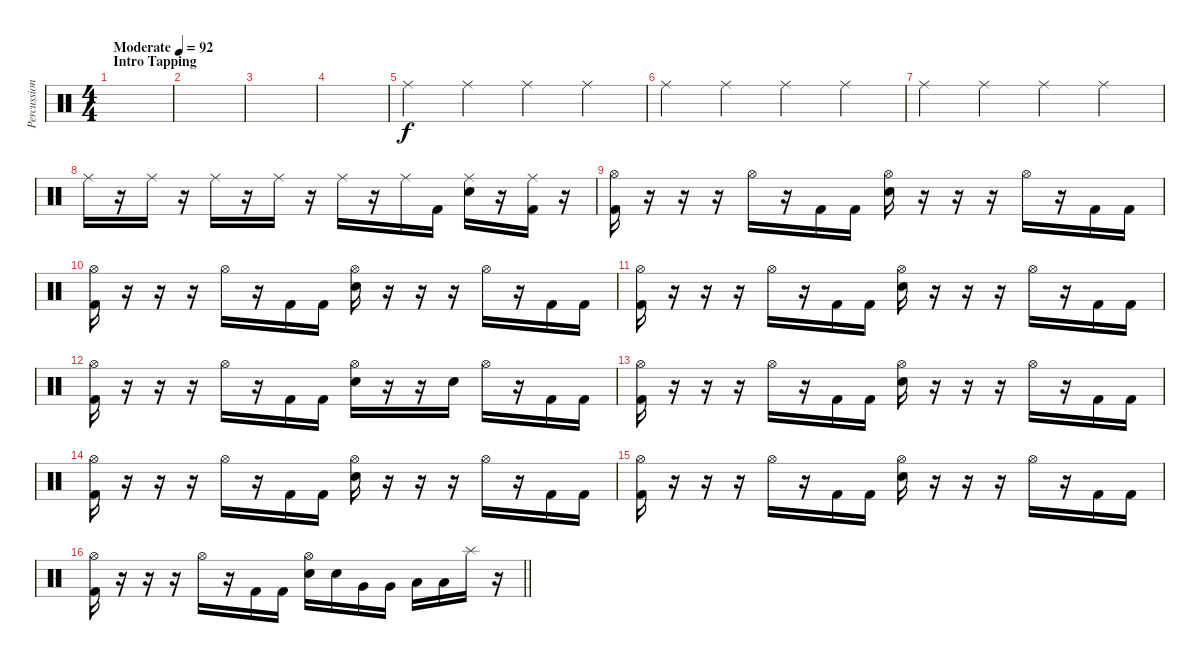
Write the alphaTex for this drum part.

\track ("Percussions" "Percussion") {instrument percussion}
\staff {score}
\articulation defaults
\ts (4 4)
\section ("" "Intro Tapping")
\tempo (92 "Moderate")
\clef neutral
\ks c
|
|
|
|
"Ride (middle)".4 "Ride (middle)".4 "Ride (middle)".4 "Ride (middle)".4 |
"Ride (middle)".4 "Ride (middle)".4 "Ride (middle)".4 "Ride (middle)".4 |
"Ride (middle)".4 "Ride (middle)".4 "Ride (middle)".4 "Ride (middle)".4 |
"Ride (middle)".16 r.16 "Ride (middle)".16 r.16 "Ride (middle)".16 r.16 "Ride (middle)".16 r.16 "Ride (middle)".16 r.16 "Ride (middle)".16 "Kick (hit) 2".16 ("Ride (middle)" "Electric Snare (hit)").16 r.16 ("Ride (middle)" "Kick (hit) 2").16 r.16 |
("Kick (hit) 2" "Hi-Hat (open)").16 r.16 r.16 r.16 "Hi-Hat (open)".16 r.16 "Kick (hit) 2".16 "Kick (hit) 2".16 ("Electric Snare (hit)" "Hi-Hat (open)").16 r.16 r.16 r.16 "Hi-Hat (open)".16 r.16 "Kick (hit) 2".16 "Kick (hit) 2".16 |
("Kick (hit) 2" "Hi-Hat (open)").16 r.16 r.16 r.16 "Hi-Hat (open)".16 r.16 "Kick (hit) 2".16 "Kick (hit) 2".16 ("Electric Snare (hit)" "Hi-Hat (open)").16 r.16 r.16 r.16 "Hi-Hat (open)".16 r.16 "Kick (hit) 2".16 "Kick (hit) 2".16 |
("Kick (hit) 2" "Hi-Hat (open)").16 r.16 r.16 r.16 "Hi-Hat (open)".16 r.16 "Kick (hit) 2".16 "Kick (hit) 2".16 ("Electric Snare (hit)" "Hi-Hat (open)").16 r.16 r.16 r.16 "Hi-Hat (open)".16 r.16 "Kick (hit) 2".16 "Kick (hit) 2".16 |
("Kick (hit) 2" "Hi-Hat (open)").16 r.16 r.16 r.16 "Hi-Hat (open)".16 r.16 "Kick (hit) 2".16 "Kick (hit) 2".16 ("Electric Snare (hit)" "Hi-Hat (open)").16 r.16 r.16 "Electric Snare (hit)".16 "Hi-Hat (open)".16 r.16 "Kick (hit) 2".16 "Kick (hit) 2".16 |
("Kick (hit) 2" "Hi-Hat (open)").16 r.16 r.16 r.16 "Hi-Hat (open)".16 r.16 "Kick (hit) 2".16 "Kick (hit) 2".16 ("Electric Snare (hit)" "Hi-Hat (open)").16 r.16 r.16 r.16 "Hi-Hat (open)".16 r.16 "Kick (hit) 2".16 "Kick (hit) 2".16 |
("Kick (hit) 2" "Hi-Hat (open)").16 r.16 r.16 r.16 "Hi-Hat (open)".16 r.16 "Kick (hit) 2".16 "Kick (hit) 2".16 ("Electric Snare (hit)" "Hi-Hat (open)").16 r.16 r.16 r.16 "Hi-Hat (open)".16 r.16 "Kick (hit) 2".16 "Kick (hit) 2".16 |
("Kick (hit) 2" "Hi-Hat (open)").16 r.16 r.16 r.16 "Hi-Hat (open)".16 r.16 "Kick (hit) 2".16 "Kick (hit) 2".16 ("Electric Snare (hit)" "Hi-Hat (open)").16 r.16 r.16 r.16 "Hi-Hat (open)".16 r.16 "Kick (hit) 2".16 "Kick (hit) 2".16 |
\barLineRight lightlight
("Kick (hit) 2" "Hi-Hat (open)").16 r.16 r.16 r.16 "Hi-Hat (open)".16 r.16 "Kick (hit) 2".16 "Kick (hit) 2".16 ("Electric Snare (hit)" "Hi-Hat (open)").16 "Electric Snare (hit)".16 "Very Low Tom (hit)".16 "Very Low Tom (hit)".16 "Low Floor Tom (hit)".16 "Low Floor Tom (hit)".16 "Splash (hit)".16 r.16
